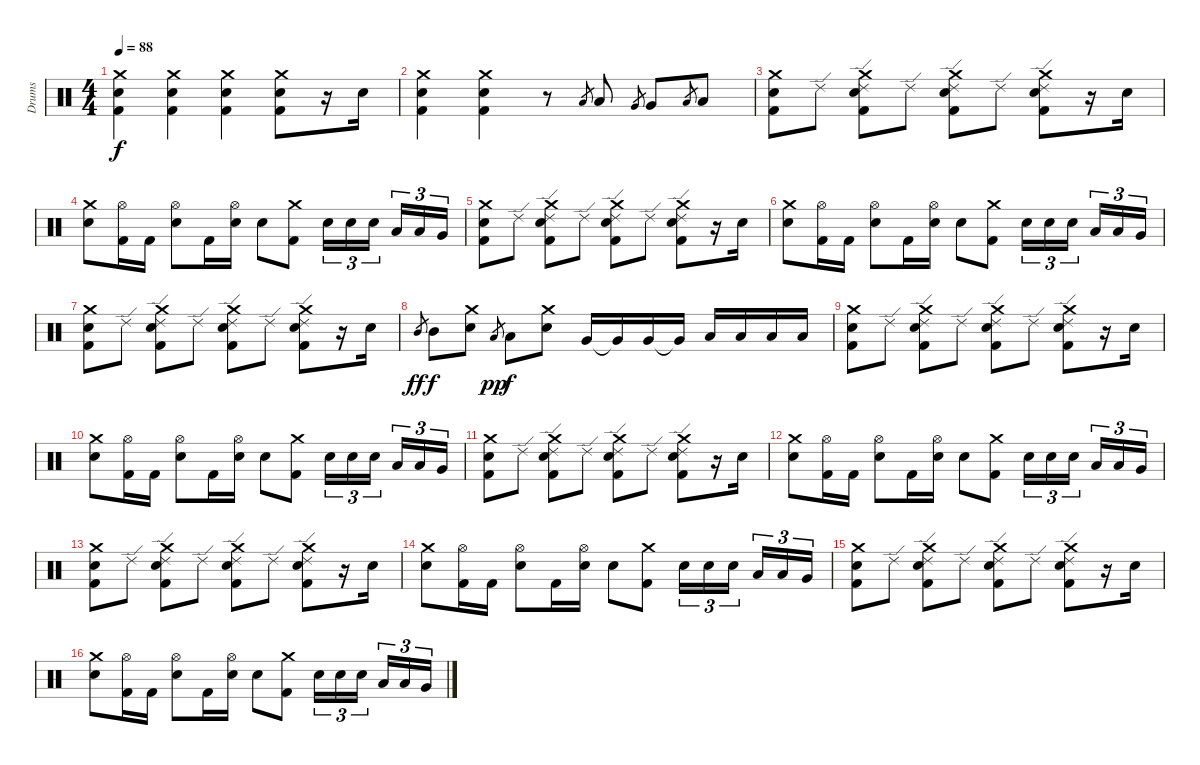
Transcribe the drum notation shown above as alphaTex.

\track ("Drums" "Drums") {instrument percussion}
\staff {score}
\articulation defaults
\ts (4 4)
\tempo 88
\clef neutral
\ks c
("Crash medium (hit)" "Snare (hit) 2" "Kick (hit) 2").4{dy f} ("Crash medium (hit)" "Snare (hit) 2" "Kick (hit) 2").4 ("Crash medium (hit)" "Snare (hit) 2" "Kick (hit) 2").4 ("Crash medium (hit)" "Snare (hit) 2" "Kick (hit) 2").8 r.16 "Snare (hit) 2".16 |
("Crash medium (hit)" "Snare (hit) 2" "Kick (hit) 2").4{bd 240} ("Crash medium (hit)" "Snare (hit) 2" "Kick (hit) 2").4{bd 120} r.8 "Low Tom (hit)".8{gr} "Low Tom (hit)".8 "Very Low Tom (hit)".8{gr} "Very Low Tom (hit)".8 "Low Floor Tom (hit)".8{gr} "Low Floor Tom (hit)".8 |
("Crash medium (hit)" "Snare (hit) 2" "Kick (hit) 2").8 "Ride (edge) 2".8 ("Crash medium (hit)" "Ride (edge) 2" "Snare (hit) 2" "Kick (hit) 2").8 "Ride (edge) 2".8 ("Crash medium (hit)" "Ride (edge) 2" "Snare (hit) 2" "Kick (hit) 2").8 "Ride (edge) 2".8 ("Crash medium (hit)" "Ride (edge) 2" "Snare (hit) 2" "Kick (hit) 2").8 r.16 "Snare (hit) 2".16 |
("Crash medium (hit)" "Snare (hit) 2").8 ("Hi-Hat (open)" "Kick (hit) 2").16 "Kick (hit) 2".16 ("Hi-Hat (open)" "Snare (hit) 2").8 "Kick (hit) 2".16 ("Hi-Hat (open)" "Snare (hit) 2").16 "Snare (hit) 2".8 ("Crash medium (hit)" "Kick (hit) 2").8 "Snare (hit) 2".16{tu (3 2)} "Snare (hit) 2".16{tu (3 2)} "Snare (hit) 2".16{tu (3 2)} "Low Tom (hit)".16{tu (3 2)} "Low Tom (hit)".16{tu (3 2)} "Very Low Tom (hit)".16{tu (3 2)} |
("Crash medium (hit)" "Snare (hit) 2" "Kick (hit) 2").8 "Ride (edge) 2".8 ("Crash medium (hit)" "Ride (edge) 2" "Snare (hit) 2" "Kick (hit) 2").8 "Ride (edge) 2".8 ("Crash medium (hit)" "Ride (edge) 2" "Snare (hit) 2" "Kick (hit) 2").8 "Ride (edge) 2".8 ("Crash medium (hit)" "Ride (edge) 2" "Snare (hit) 2" "Kick (hit) 2").8 r.16 "Snare (hit) 2".16 |
("Crash medium (hit)" "Snare (hit) 2").8 ("Hi-Hat (open)" "Kick (hit) 2").16 "Kick (hit) 2".16 ("Hi-Hat (open)" "Snare (hit) 2").8 "Kick (hit) 2".16 ("Hi-Hat (open)" "Snare (hit) 2").16 "Snare (hit) 2".8 ("Crash medium (hit)" "Kick (hit) 2").8 "Snare (hit) 2".16{tu (3 2)} "Snare (hit) 2".16{tu (3 2)} "Snare (hit) 2".16{tu (3 2)} "Low Tom (hit)".16{tu (3 2)} "Low Tom (hit)".16{tu (3 2)} "Very Low Tom (hit)".16{tu (3 2)} |
("Crash medium (hit)" "Snare (hit) 2" "Kick (hit) 2").8 "Ride (edge) 2".8 ("Crash medium (hit)" "Ride (edge) 2" "Snare (hit) 2" "Kick (hit) 2").8 "Ride (edge) 2".8 ("Crash medium (hit)" "Ride (edge) 2" "Snare (hit) 2" "Kick (hit) 2").8 "Ride (edge) 2".8 ("Crash medium (hit)" "Ride (edge) 2" "Snare (hit) 2" "Kick (hit) 2").8 r.16 "Snare (hit) 2".16 |
"Mid Tom (hit)".8{gr dy ff} "Mid Tom (hit)".8{dy f} ("Crash medium (hit)" "Snare (hit) 2").8 "Low Tom (hit)".8{gr dy pp} "Low Tom (hit)".8{dy f} ("Crash medium (hit)" "Snare (hit) 2").8 "Very Low Tom (hit)".16 "Very Low Tom (hit)"{t}.16 "Very Low Tom (hit)".16 "Very Low Tom (hit)"{t}.16 "Low Floor Tom (hit)".16 "Low Floor Tom (hit)".16 "Low Floor Tom (hit)".16 "Low Floor Tom (hit)".16 |
("Crash medium (hit)" "Snare (hit) 2" "Kick (hit) 2").8 "Ride (edge) 2".8 ("Crash medium (hit)" "Ride (edge) 2" "Snare (hit) 2" "Kick (hit) 2").8 "Ride (edge) 2".8 ("Crash medium (hit)" "Ride (edge) 2" "Snare (hit) 2" "Kick (hit) 2").8 "Ride (edge) 2".8 ("Crash medium (hit)" "Ride (edge) 2" "Snare (hit) 2" "Kick (hit) 2").8 r.16 "Snare (hit) 2".16 |
("Crash medium (hit)" "Snare (hit) 2").8 ("Hi-Hat (open)" "Kick (hit) 2").16 "Kick (hit) 2".16 ("Hi-Hat (open)" "Snare (hit) 2").8 "Kick (hit) 2".16 ("Hi-Hat (open)" "Snare (hit) 2").16 "Snare (hit) 2".8 ("Crash medium (hit)" "Kick (hit) 2").8 "Snare (hit) 2".16{tu (3 2)} "Snare (hit) 2".16{tu (3 2)} "Snare (hit) 2".16{tu (3 2)} "Low Tom (hit)".16{tu (3 2)} "Low Tom (hit)".16{tu (3 2)} "Very Low Tom (hit)".16{tu (3 2)} |
("Crash medium (hit)" "Snare (hit) 2" "Kick (hit) 2").8 "Ride (edge) 2".8 ("Crash medium (hit)" "Ride (edge) 2" "Snare (hit) 2" "Kick (hit) 2").8 "Ride (edge) 2".8 ("Crash medium (hit)" "Ride (edge) 2" "Snare (hit) 2" "Kick (hit) 2").8 "Ride (edge) 2".8 ("Crash medium (hit)" "Ride (edge) 2" "Snare (hit) 2" "Kick (hit) 2").8 r.16 "Snare (hit) 2".16 |
("Crash medium (hit)" "Snare (hit) 2").8 ("Hi-Hat (open)" "Kick (hit) 2").16 "Kick (hit) 2".16 ("Hi-Hat (open)" "Snare (hit) 2").8 "Kick (hit) 2".16 ("Hi-Hat (open)" "Snare (hit) 2").16 "Snare (hit) 2".8 ("Crash medium (hit)" "Kick (hit) 2").8 "Snare (hit) 2".16{tu (3 2)} "Snare (hit) 2".16{tu (3 2)} "Snare (hit) 2".16{tu (3 2)} "Low Tom (hit)".16{tu (3 2)} "Low Tom (hit)".16{tu (3 2)} "Very Low Tom (hit)".16{tu (3 2)} |
("Crash medium (hit)" "Snare (hit) 2" "Kick (hit) 2").8 "Ride (edge) 2".8 ("Crash medium (hit)" "Ride (edge) 2" "Snare (hit) 2" "Kick (hit) 2").8 "Ride (edge) 2".8 ("Crash medium (hit)" "Ride (edge) 2" "Snare (hit) 2" "Kick (hit) 2").8 "Ride (edge) 2".8 ("Crash medium (hit)" "Ride (edge) 2" "Snare (hit) 2" "Kick (hit) 2").8 r.16 "Snare (hit) 2".16 |
("Crash medium (hit)" "Snare (hit) 2").8 ("Hi-Hat (open)" "Kick (hit) 2").16 "Kick (hit) 2".16 ("Hi-Hat (open)" "Snare (hit) 2").8 "Kick (hit) 2".16 ("Hi-Hat (open)" "Snare (hit) 2").16 "Snare (hit) 2".8 ("Crash medium (hit)" "Kick (hit) 2").8 "Snare (hit) 2".16{tu (3 2)} "Snare (hit) 2".16{tu (3 2)} "Snare (hit) 2".16{tu (3 2)} "Low Tom (hit)".16{tu (3 2)} "Low Tom (hit)".16{tu (3 2)} "Very Low Tom (hit)".16{tu (3 2)} |
("Crash medium (hit)" "Snare (hit) 2" "Kick (hit) 2").8 "Ride (edge) 2".8 ("Crash medium (hit)" "Ride (edge) 2" "Snare (hit) 2" "Kick (hit) 2").8 "Ride (edge) 2".8 ("Crash medium (hit)" "Ride (edge) 2" "Snare (hit) 2" "Kick (hit) 2").8 "Ride (edge) 2".8 ("Crash medium (hit)" "Ride (edge) 2" "Snare (hit) 2" "Kick (hit) 2").8 r.16 "Snare (hit) 2".16 |
("Crash medium (hit)" "Snare (hit) 2").8 ("Hi-Hat (open)" "Kick (hit) 2").16 "Kick (hit) 2".16 ("Hi-Hat (open)" "Snare (hit) 2").8 "Kick (hit) 2".16 ("Hi-Hat (open)" "Snare (hit) 2").16 "Snare (hit) 2".8 ("Crash medium (hit)" "Kick (hit) 2").8 "Snare (hit) 2".16{tu (3 2)} "Snare (hit) 2".16{tu (3 2)} "Snare (hit) 2".16{tu (3 2)} "Low Tom (hit)".16{tu (3 2)} "Low Tom (hit)".16{tu (3 2)} "Very Low Tom (hit)".16{tu (3 2)}
